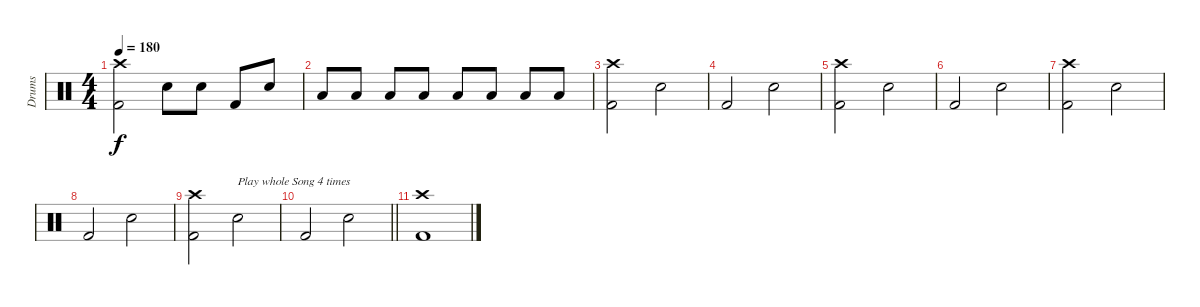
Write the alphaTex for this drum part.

\track ("Drums" "Drums") {instrument percussion}
\staff {score}
\articulation defaults
\ts (4 4)
\tempo 180
\clef neutral
\ks c
("Kick (hit) 2" "Crash high (hit)").2{dy f} "Electric Snare (hit)".8 "Electric Snare (hit)".8 "Kick (hit) 2".8 "Electric Snare (hit)".8 |
"Low Floor Tom (hit)".8 "Low Floor Tom (hit)".8 "Low Floor Tom (hit)".8 "Low Floor Tom (hit)".8 "Low Floor Tom (hit)".8 "Low Floor Tom (hit)".8 "Low Floor Tom (hit)".8 "Low Floor Tom (hit)".8 |
("Kick (hit) 2" "Crash high (hit)").2 "Electric Snare (hit)".2 |
"Kick (hit) 2".2 "Electric Snare (hit)".2 |
("Kick (hit) 2" "Crash high (hit)").2 "Electric Snare (hit)".2 |
"Kick (hit) 2".2 "Electric Snare (hit)".2 |
("Kick (hit) 2" "Crash high (hit)").2 "Electric Snare (hit)".2 |
"Kick (hit) 2".2 "Electric Snare (hit)".2 |
("Kick (hit) 2" "Crash high (hit)").2 "Electric Snare (hit)".2{txt "Play whole Song 4 times"} |
\barLineRight lightlight "Kick (hit) 2".2 "Electric Snare (hit)".2
|
("Kick (hit) 2" "Crash high (hit)").1
